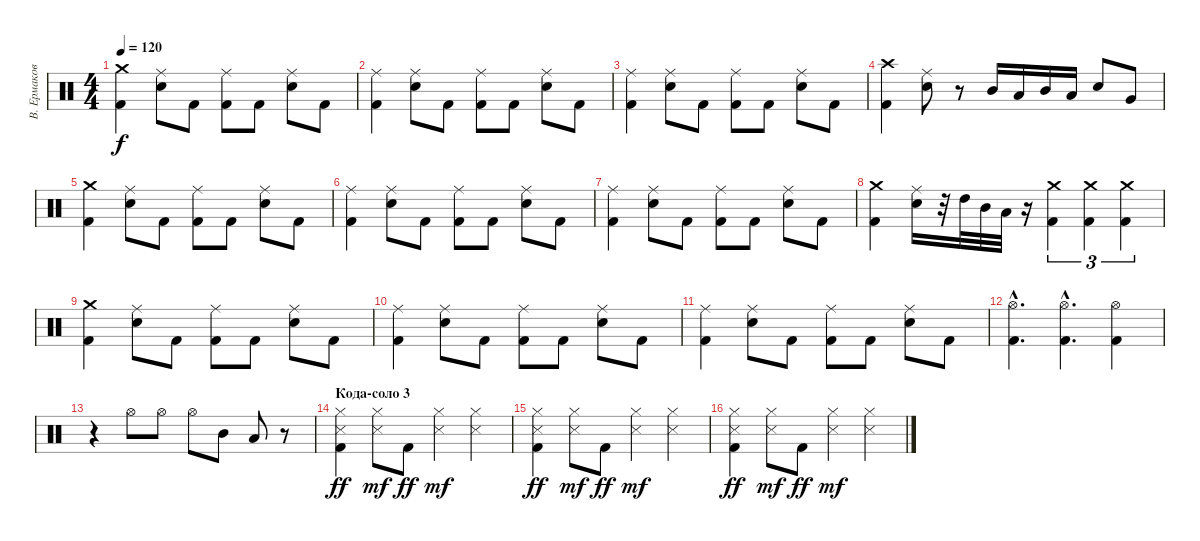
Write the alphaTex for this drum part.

\track ("В. Ермаков" "В. Ермаков") {instrument percussion}
\staff {score}
\articulation defaults
\ts (4 4)
\tempo 120
\clef neutral
\ks c
("Crash medium (hit)" "Kick (hit) 2").4{dy f} ("Ride (middle)" "Electric Snare (hit)").8 "Kick (hit) 2".8 ("Ride (middle)" "Kick (hit) 2").8 "Kick (hit) 2".8 ("Ride (middle)" "Electric Snare (hit)").8 "Kick (hit) 2".8 |
("Ride (middle)" "Kick (hit) 2").4 ("Ride (middle)" "Electric Snare (hit)").8 "Kick (hit) 2".8 ("Ride (middle)" "Kick (hit) 2").8 "Kick (hit) 2".8 ("Ride (middle)" "Electric Snare (hit)").8 "Kick (hit) 2".8 |
("Ride (middle)" "Kick (hit) 2").4 ("Ride (middle)" "Electric Snare (hit)").8 "Kick (hit) 2".8 ("Ride (middle)" "Kick (hit) 2").8 "Kick (hit) 2".8 ("Ride (middle)" "Electric Snare (hit)").8 "Kick (hit) 2".8 |
("Crash high (hit)" "Kick (hit) 2").4 ("Ride (middle)" "Electric Snare (hit)").8 r.8 "Mid Tom (hit)".16 "Low Tom (hit)".16 "Mid Tom (hit)".16 "Low Tom (hit)".16 "Electric Snare (hit)".8 "Very Low Tom (hit)".8 |
("Crash medium (hit)" "Kick (hit) 2").4 ("Ride (middle)" "Electric Snare (hit)").8 "Kick (hit) 2".8 ("Ride (middle)" "Kick (hit) 2").8 "Kick (hit) 2".8 ("Ride (middle)" "Electric Snare (hit)").8 "Kick (hit) 2".8 |
("Ride (middle)" "Kick (hit) 2").4 ("Ride (middle)" "Electric Snare (hit)").8 "Kick (hit) 2".8 ("Ride (middle)" "Kick (hit) 2").8 "Kick (hit) 2".8 ("Ride (middle)" "Electric Snare (hit)").8 "Kick (hit) 2".8 |
("Ride (middle)" "Kick (hit) 2").4 ("Ride (middle)" "Electric Snare (hit)").8 "Kick (hit) 2".8 ("Ride (middle)" "Kick (hit) 2").8 "Kick (hit) 2".8 ("Ride (middle)" "Electric Snare (hit)").8 "Kick (hit) 2".8 |
("Crash medium (hit)" "Kick (hit) 2").4 ("Ride (middle)" "Electric Snare (hit)").16 r.32 "High Tom (hit)".32 "Mid Tom (hit)".32 "Low Tom (hit)".32 r.16 ("Crash medium (hit)" "Kick (hit) 2").4{tu (3 2)} ("Crash medium (hit)" "Kick (hit) 2").4{tu (3 2)} ("Crash medium (hit)" "Kick (hit) 2").4{tu (3 2)} |
("Crash medium (hit)" "Kick (hit) 2").4 ("Ride (middle)" "Electric Snare (hit)").8 "Kick (hit) 2".8 ("Ride (middle)" "Kick (hit) 2").8 "Kick (hit) 2".8 ("Ride (middle)" "Electric Snare (hit)").8 "Kick (hit) 2".8 |
("Ride (middle)" "Kick (hit) 2").4 ("Ride (middle)" "Electric Snare (hit)").8 "Kick (hit) 2".8 ("Ride (middle)" "Kick (hit) 2").8 "Kick (hit) 2".8 ("Ride (middle)" "Electric Snare (hit)").8 "Kick (hit) 2".8 |
("Ride (middle)" "Kick (hit) 2").4 ("Ride (middle)" "Electric Snare (hit)").8 "Kick (hit) 2".8 ("Ride (middle)" "Kick (hit) 2").8 "Kick (hit) 2".8 ("Ride (middle)" "Electric Snare (hit)").8 "Kick (hit) 2".8 |
("Hi-Hat (open)"{hac} "Kick (hit) 2"{hac}).4{d} ("Hi-Hat (open)"{hac} "Kick (hit) 2"{hac}).4{d} ("Hi-Hat (open)" "Kick (hit) 2").4 |
r.4 "Hi-Hat (open)".8 "Hi-Hat (open)".8 "Hi-Hat (open)".8 "Mid Tom (hit)".8 "Low Tom (hit)".8 r.8 |
\section ("" "Кода-соло 3")
("Snare (side stick) 3" "Kick (hit) 2" "Hi-Hat (closed)").4{dy ff} ("Snare (side stick) 3" "Hi-Hat (closed)").8{dy mf} "Kick (hit) 2".8{dy ff} ("Snare (side stick) 3" "Hi-Hat (closed)").4{dy mf} ("Snare (side stick) 3" "Hi-Hat (closed)").4 |
("Snare (side stick) 3" "Kick (hit) 2" "Hi-Hat (closed)").4{dy ff} ("Snare (side stick) 3" "Hi-Hat (closed)").8{dy mf} "Kick (hit) 2".8{dy ff} ("Snare (side stick) 3" "Hi-Hat (closed)").4{dy mf} ("Snare (side stick) 3" "Hi-Hat (closed)").4 |
("Snare (side stick) 3" "Kick (hit) 2" "Hi-Hat (closed)").4{dy ff} ("Snare (side stick) 3" "Hi-Hat (closed)").8{dy mf} "Kick (hit) 2".8{dy ff} ("Snare (side stick) 3" "Hi-Hat (closed)").4{dy mf} ("Snare (side stick) 3" "Hi-Hat (closed)").4
